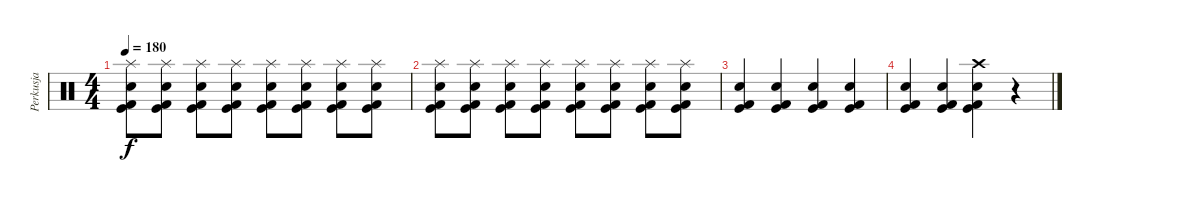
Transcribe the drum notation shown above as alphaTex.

\track ("Perkusja" "Perkusja") {instrument percussion}
\staff {score}
\articulation defaults
\ts (4 4)
\tempo 180
\clef neutral
\ks c
("Kick (hit)" "Kick (hit) 2" "Snare (hit) 2" "Splash (hit)").8{dy f} ("Kick (hit)" "Kick (hit) 2" "Snare (hit) 2" "Splash (hit)").8 ("Kick (hit)" "Kick (hit) 2" "Snare (hit) 2" "Splash (hit)").8 ("Kick (hit)" "Kick (hit) 2" "Snare (hit) 2" "Splash (hit)").8 ("Kick (hit)" "Kick (hit) 2" "Snare (hit) 2" "Splash (hit)").8 ("Kick (hit)" "Kick (hit) 2" "Snare (hit) 2" "Splash (hit)").8 ("Kick (hit)" "Kick (hit) 2" "Snare (hit) 2" "Splash (hit)").8 ("Kick (hit)" "Kick (hit) 2" "Snare (hit) 2" "Splash (hit)").8 |
("Kick (hit)" "Kick (hit) 2" "Snare (hit) 2" "Splash (hit)").8 ("Kick (hit)" "Kick (hit) 2" "Snare (hit) 2" "Splash (hit)").8 ("Kick (hit)" "Kick (hit) 2" "Snare (hit) 2" "Splash (hit)").8 ("Kick (hit)" "Kick (hit) 2" "Snare (hit) 2" "Splash (hit)").8 ("Kick (hit)" "Kick (hit) 2" "Snare (hit) 2" "Splash (hit)").8 ("Kick (hit)" "Kick (hit) 2" "Snare (hit) 2" "Splash (hit)").8 ("Kick (hit)" "Kick (hit) 2" "Snare (hit) 2" "Splash (hit)").8 ("Kick (hit)" "Kick (hit) 2" "Snare (hit) 2" "Splash (hit)").8 |
("Kick (hit)" "Kick (hit) 2" "Snare (hit) 2").4 ("Kick (hit)" "Kick (hit) 2" "Snare (hit) 2").4 ("Kick (hit)" "Kick (hit) 2" "Snare (hit) 2").4 ("Kick (hit)" "Kick (hit) 2" "Snare (hit) 2").4 |
("Kick (hit)" "Kick (hit) 2" "Snare (hit) 2").4 ("Kick (hit)" "Kick (hit) 2" "Snare (hit) 2").4 ("Crash high (hit)" "Kick (hit)" "Kick (hit) 2" "Snare (hit) 2").4 r.4
